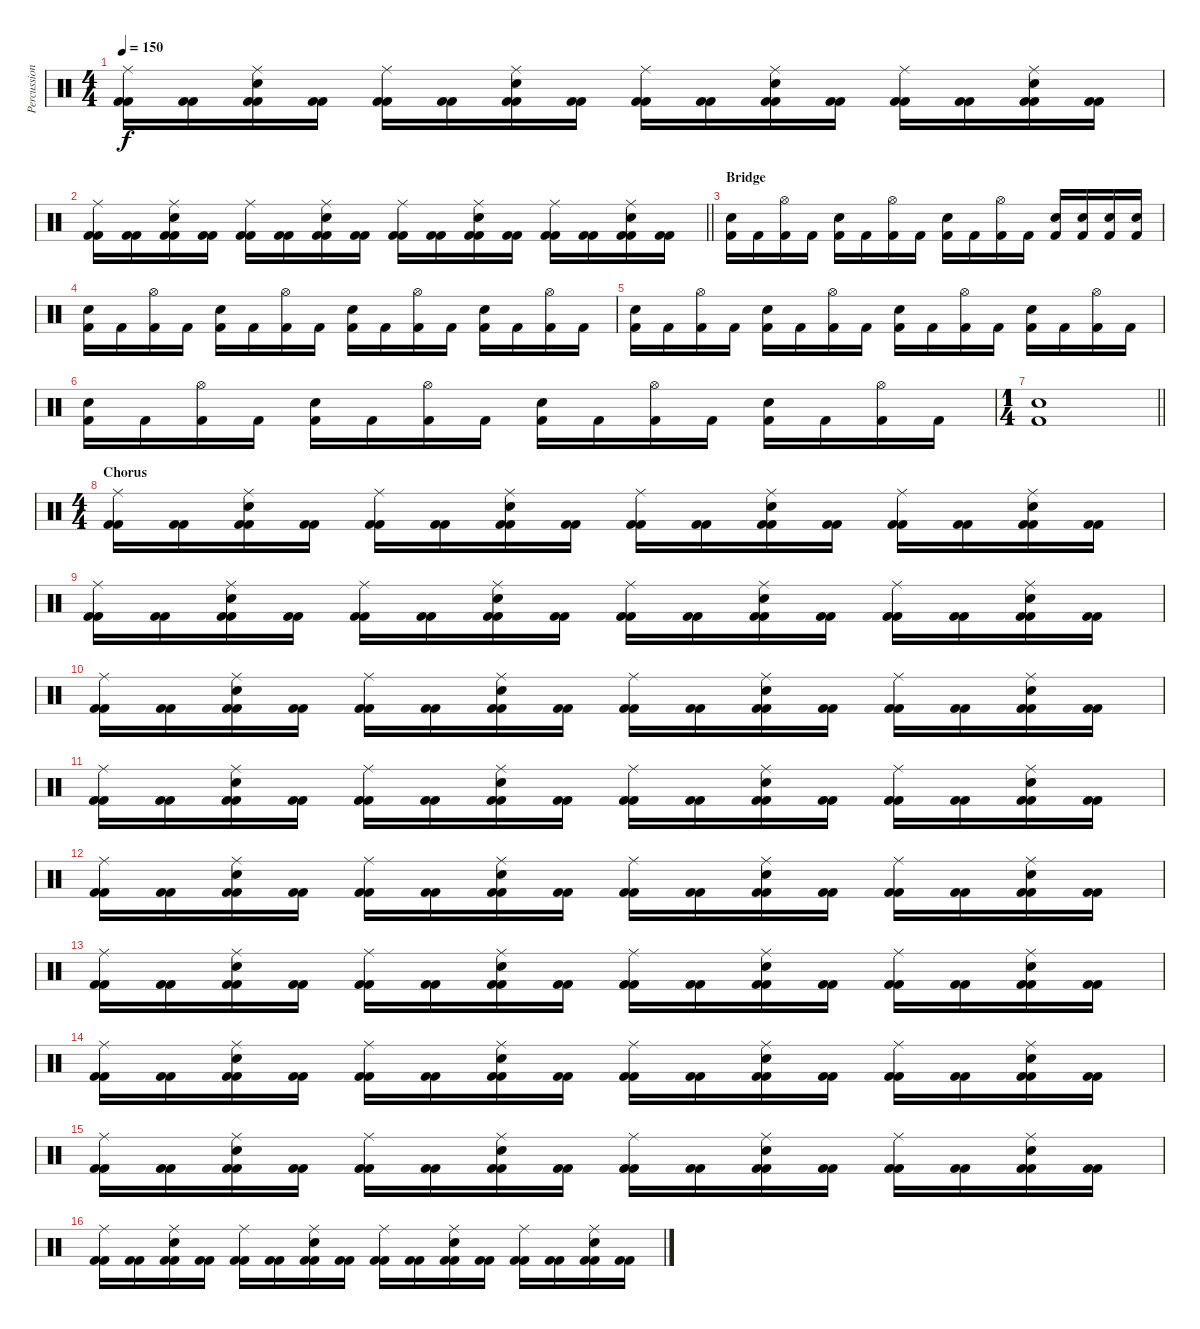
\track ("Percussion" "Percussion") {instrument percussion}
\staff {score}
\articulation defaults
\ts (4 4)
\tempo 150
\clef neutral
\ks c
("Kick (hit) 2" "Kick (hit) 2" "Ride (middle)").16{dy f} ("Kick (hit) 2" "Kick (hit) 2").16 ("Kick (hit) 2" "Kick (hit) 2" "Electric Snare (hit)" "Ride (middle)").16 ("Kick (hit) 2" "Kick (hit) 2").16 ("Kick (hit) 2" "Kick (hit) 2" "Ride (middle)").16 ("Kick (hit) 2" "Kick (hit) 2").16 ("Kick (hit) 2" "Kick (hit) 2" "Electric Snare (hit)" "Ride (middle)").16 ("Kick (hit) 2" "Kick (hit) 2").16 ("Kick (hit) 2" "Kick (hit) 2" "Ride (middle)").16 ("Kick (hit) 2" "Kick (hit) 2").16 ("Kick (hit) 2" "Kick (hit) 2" "Electric Snare (hit)" "Ride (middle)").16 ("Kick (hit) 2" "Kick (hit) 2").16 ("Kick (hit) 2" "Kick (hit) 2" "Ride (middle)").16 ("Kick (hit) 2" "Kick (hit) 2").16 ("Kick (hit) 2" "Kick (hit) 2" "Electric Snare (hit)" "Ride (middle)").16 ("Kick (hit) 2" "Kick (hit) 2").16 |
\barLineRight lightlight
("Kick (hit) 2" "Kick (hit) 2" "Ride (middle)").16 ("Kick (hit) 2" "Kick (hit) 2").16 ("Kick (hit) 2" "Kick (hit) 2" "Electric Snare (hit)" "Ride (middle)").16 ("Kick (hit) 2" "Kick (hit) 2").16 ("Kick (hit) 2" "Kick (hit) 2" "Ride (middle)").16 ("Kick (hit) 2" "Kick (hit) 2").16 ("Kick (hit) 2" "Kick (hit) 2" "Electric Snare (hit)" "Ride (middle)").16 ("Kick (hit) 2" "Kick (hit) 2").16 ("Kick (hit) 2" "Kick (hit) 2" "Ride (middle)").16 ("Kick (hit) 2" "Kick (hit) 2").16 ("Kick (hit) 2" "Kick (hit) 2" "Electric Snare (hit)" "Ride (middle)").16 ("Kick (hit) 2" "Kick (hit) 2").16 ("Kick (hit) 2" "Kick (hit) 2" "Ride (middle)").16 ("Kick (hit) 2" "Kick (hit) 2").16 ("Kick (hit) 2" "Kick (hit) 2" "Electric Snare (hit)" "Ride (middle)").16 ("Kick (hit) 2" "Kick (hit) 2").16 |
\section ("" "Bridge")
("Kick (hit) 2" "Snare (hit) 2").16 "Kick (hit) 2".16 ("Kick (hit) 2" "Hi-Hat (open)").16 "Kick (hit) 2".16 ("Kick (hit) 2" "Snare (hit) 2").16 "Kick (hit) 2".16 ("Kick (hit) 2" "Hi-Hat (open)").16 "Kick (hit) 2".16 ("Kick (hit) 2" "Snare (hit) 2").16 "Kick (hit) 2".16 ("Kick (hit) 2" "Hi-Hat (open)").16 "Kick (hit) 2".16 ("Kick (hit) 2" "Snare (hit) 2").16 ("Kick (hit) 2" "Snare (hit) 2").16 ("Kick (hit) 2" "Snare (hit) 2").16 ("Kick (hit) 2" "Snare (hit) 2").16 |
("Kick (hit) 2" "Snare (hit) 2").16 "Kick (hit) 2".16 ("Kick (hit) 2" "Hi-Hat (open)").16 "Kick (hit) 2".16 ("Kick (hit) 2" "Snare (hit) 2").16 "Kick (hit) 2".16 ("Kick (hit) 2" "Hi-Hat (open)").16 "Kick (hit) 2".16 ("Kick (hit) 2" "Snare (hit) 2").16 "Kick (hit) 2".16 ("Kick (hit) 2" "Hi-Hat (open)").16 "Kick (hit) 2".16 ("Kick (hit) 2" "Snare (hit) 2").16 "Kick (hit) 2".16 ("Kick (hit) 2" "Hi-Hat (open)").16 "Kick (hit) 2".16 |
("Kick (hit) 2" "Snare (hit) 2").16 "Kick (hit) 2".16 ("Kick (hit) 2" "Hi-Hat (open)").16 "Kick (hit) 2".16 ("Kick (hit) 2" "Snare (hit) 2").16 "Kick (hit) 2".16 ("Kick (hit) 2" "Hi-Hat (open)").16 "Kick (hit) 2".16 ("Kick (hit) 2" "Snare (hit) 2").16 "Kick (hit) 2".16 ("Kick (hit) 2" "Hi-Hat (open)").16 "Kick (hit) 2".16 ("Kick (hit) 2" "Snare (hit) 2").16 "Kick (hit) 2".16 ("Kick (hit) 2" "Hi-Hat (open)").16 "Kick (hit) 2".16 |
("Kick (hit) 2" "Snare (hit) 2").16 "Kick (hit) 2".16 ("Kick (hit) 2" "Hi-Hat (open)").16 "Kick (hit) 2".16 ("Kick (hit) 2" "Snare (hit) 2").16 "Kick (hit) 2".16 ("Kick (hit) 2" "Hi-Hat (open)").16 "Kick (hit) 2".16 ("Kick (hit) 2" "Snare (hit) 2").16 "Kick (hit) 2".16 ("Kick (hit) 2" "Hi-Hat (open)").16 "Kick (hit) 2".16 ("Kick (hit) 2" "Snare (hit) 2").16 "Kick (hit) 2".16 ("Kick (hit) 2" "Hi-Hat (open)").16 "Kick (hit) 2".16 |
\ts (1 4)
\barLineRight lightlight
("Kick (hit) 2" "Snare (hit) 2").1 |
\ts (4 4)
\section ("" "Chorus")
("Kick (hit) 2" "Kick (hit) 2" "Ride (middle)").16 ("Kick (hit) 2" "Kick (hit) 2").16 ("Kick (hit) 2" "Kick (hit) 2" "Electric Snare (hit)" "Ride (middle)").16 ("Kick (hit) 2" "Kick (hit) 2").16 ("Kick (hit) 2" "Kick (hit) 2" "Ride (middle)").16 ("Kick (hit) 2" "Kick (hit) 2").16 ("Kick (hit) 2" "Kick (hit) 2" "Electric Snare (hit)" "Ride (middle)").16 ("Kick (hit) 2" "Kick (hit) 2").16 ("Kick (hit) 2" "Kick (hit) 2" "Ride (middle)").16 ("Kick (hit) 2" "Kick (hit) 2").16 ("Kick (hit) 2" "Kick (hit) 2" "Electric Snare (hit)" "Ride (middle)").16 ("Kick (hit) 2" "Kick (hit) 2").16 ("Kick (hit) 2" "Kick (hit) 2" "Ride (middle)").16 ("Kick (hit) 2" "Kick (hit) 2").16 ("Kick (hit) 2" "Kick (hit) 2" "Electric Snare (hit)" "Ride (middle)").16 ("Kick (hit) 2" "Kick (hit) 2").16 |
("Kick (hit) 2" "Kick (hit) 2" "Ride (middle)").16 ("Kick (hit) 2" "Kick (hit) 2").16 ("Kick (hit) 2" "Kick (hit) 2" "Electric Snare (hit)" "Ride (middle)").16 ("Kick (hit) 2" "Kick (hit) 2").16 ("Kick (hit) 2" "Kick (hit) 2" "Ride (middle)").16 ("Kick (hit) 2" "Kick (hit) 2").16 ("Kick (hit) 2" "Kick (hit) 2" "Electric Snare (hit)" "Ride (middle)").16 ("Kick (hit) 2" "Kick (hit) 2").16 ("Kick (hit) 2" "Kick (hit) 2" "Ride (middle)").16 ("Kick (hit) 2" "Kick (hit) 2").16 ("Kick (hit) 2" "Kick (hit) 2" "Electric Snare (hit)" "Ride (middle)").16 ("Kick (hit) 2" "Kick (hit) 2").16 ("Kick (hit) 2" "Kick (hit) 2" "Ride (middle)").16 ("Kick (hit) 2" "Kick (hit) 2").16 ("Kick (hit) 2" "Kick (hit) 2" "Electric Snare (hit)" "Ride (middle)").16 ("Kick (hit) 2" "Kick (hit) 2").16 |
("Kick (hit) 2" "Kick (hit) 2" "Ride (middle)").16 ("Kick (hit) 2" "Kick (hit) 2").16 ("Kick (hit) 2" "Kick (hit) 2" "Electric Snare (hit)" "Ride (middle)").16 ("Kick (hit) 2" "Kick (hit) 2").16 ("Kick (hit) 2" "Kick (hit) 2" "Ride (middle)").16 ("Kick (hit) 2" "Kick (hit) 2").16 ("Kick (hit) 2" "Kick (hit) 2" "Electric Snare (hit)" "Ride (middle)").16 ("Kick (hit) 2" "Kick (hit) 2").16 ("Kick (hit) 2" "Kick (hit) 2" "Ride (middle)").16 ("Kick (hit) 2" "Kick (hit) 2").16 ("Kick (hit) 2" "Kick (hit) 2" "Electric Snare (hit)" "Ride (middle)").16 ("Kick (hit) 2" "Kick (hit) 2").16 ("Kick (hit) 2" "Kick (hit) 2" "Ride (middle)").16 ("Kick (hit) 2" "Kick (hit) 2").16 ("Kick (hit) 2" "Kick (hit) 2" "Electric Snare (hit)" "Ride (middle)").16 ("Kick (hit) 2" "Kick (hit) 2").16 |
("Kick (hit) 2" "Kick (hit) 2" "Ride (middle)").16 ("Kick (hit) 2" "Kick (hit) 2").16 ("Kick (hit) 2" "Kick (hit) 2" "Electric Snare (hit)" "Ride (middle)").16 ("Kick (hit) 2" "Kick (hit) 2").16 ("Kick (hit) 2" "Kick (hit) 2" "Ride (middle)").16 ("Kick (hit) 2" "Kick (hit) 2").16 ("Kick (hit) 2" "Kick (hit) 2" "Electric Snare (hit)" "Ride (middle)").16 ("Kick (hit) 2" "Kick (hit) 2").16 ("Kick (hit) 2" "Kick (hit) 2" "Ride (middle)").16 ("Kick (hit) 2" "Kick (hit) 2").16 ("Kick (hit) 2" "Kick (hit) 2" "Electric Snare (hit)" "Ride (middle)").16 ("Kick (hit) 2" "Kick (hit) 2").16 ("Kick (hit) 2" "Kick (hit) 2" "Ride (middle)").16 ("Kick (hit) 2" "Kick (hit) 2").16 ("Kick (hit) 2" "Kick (hit) 2" "Electric Snare (hit)" "Ride (middle)").16 ("Kick (hit) 2" "Kick (hit) 2").16 |
("Kick (hit) 2" "Kick (hit) 2" "Ride (middle)").16 ("Kick (hit) 2" "Kick (hit) 2").16 ("Kick (hit) 2" "Kick (hit) 2" "Electric Snare (hit)" "Ride (middle)").16 ("Kick (hit) 2" "Kick (hit) 2").16 ("Kick (hit) 2" "Kick (hit) 2" "Ride (middle)").16 ("Kick (hit) 2" "Kick (hit) 2").16 ("Kick (hit) 2" "Kick (hit) 2" "Electric Snare (hit)" "Ride (middle)").16 ("Kick (hit) 2" "Kick (hit) 2").16 ("Kick (hit) 2" "Kick (hit) 2" "Ride (middle)").16 ("Kick (hit) 2" "Kick (hit) 2").16 ("Kick (hit) 2" "Kick (hit) 2" "Electric Snare (hit)" "Ride (middle)").16 ("Kick (hit) 2" "Kick (hit) 2").16 ("Kick (hit) 2" "Kick (hit) 2" "Ride (middle)").16 ("Kick (hit) 2" "Kick (hit) 2").16 ("Kick (hit) 2" "Kick (hit) 2" "Electric Snare (hit)" "Ride (middle)").16 ("Kick (hit) 2" "Kick (hit) 2").16 |
("Kick (hit) 2" "Kick (hit) 2" "Ride (middle)").16 ("Kick (hit) 2" "Kick (hit) 2").16 ("Kick (hit) 2" "Kick (hit) 2" "Electric Snare (hit)" "Ride (middle)").16 ("Kick (hit) 2" "Kick (hit) 2").16 ("Kick (hit) 2" "Kick (hit) 2" "Ride (middle)").16 ("Kick (hit) 2" "Kick (hit) 2").16 ("Kick (hit) 2" "Kick (hit) 2" "Electric Snare (hit)" "Ride (middle)").16 ("Kick (hit) 2" "Kick (hit) 2").16 ("Kick (hit) 2" "Kick (hit) 2" "Ride (middle)").16 ("Kick (hit) 2" "Kick (hit) 2").16 ("Kick (hit) 2" "Kick (hit) 2" "Electric Snare (hit)" "Ride (middle)").16 ("Kick (hit) 2" "Kick (hit) 2").16 ("Kick (hit) 2" "Kick (hit) 2" "Ride (middle)").16 ("Kick (hit) 2" "Kick (hit) 2").16 ("Kick (hit) 2" "Kick (hit) 2" "Electric Snare (hit)" "Ride (middle)").16 ("Kick (hit) 2" "Kick (hit) 2").16 |
("Kick (hit) 2" "Kick (hit) 2" "Ride (middle)").16 ("Kick (hit) 2" "Kick (hit) 2").16 ("Kick (hit) 2" "Kick (hit) 2" "Electric Snare (hit)" "Ride (middle)").16 ("Kick (hit) 2" "Kick (hit) 2").16 ("Kick (hit) 2" "Kick (hit) 2" "Ride (middle)").16 ("Kick (hit) 2" "Kick (hit) 2").16 ("Kick (hit) 2" "Kick (hit) 2" "Electric Snare (hit)" "Ride (middle)").16 ("Kick (hit) 2" "Kick (hit) 2").16 ("Kick (hit) 2" "Kick (hit) 2" "Ride (middle)").16 ("Kick (hit) 2" "Kick (hit) 2").16 ("Kick (hit) 2" "Kick (hit) 2" "Electric Snare (hit)" "Ride (middle)").16 ("Kick (hit) 2" "Kick (hit) 2").16 ("Kick (hit) 2" "Kick (hit) 2" "Ride (middle)").16 ("Kick (hit) 2" "Kick (hit) 2").16 ("Kick (hit) 2" "Kick (hit) 2" "Electric Snare (hit)" "Ride (middle)").16 ("Kick (hit) 2" "Kick (hit) 2").16 |
("Kick (hit) 2" "Kick (hit) 2" "Ride (middle)").16 ("Kick (hit) 2" "Kick (hit) 2").16 ("Kick (hit) 2" "Kick (hit) 2" "Electric Snare (hit)" "Ride (middle)").16 ("Kick (hit) 2" "Kick (hit) 2").16 ("Kick (hit) 2" "Kick (hit) 2" "Ride (middle)").16 ("Kick (hit) 2" "Kick (hit) 2").16 ("Kick (hit) 2" "Kick (hit) 2" "Electric Snare (hit)" "Ride (middle)").16 ("Kick (hit) 2" "Kick (hit) 2").16 ("Kick (hit) 2" "Kick (hit) 2" "Ride (middle)").16 ("Kick (hit) 2" "Kick (hit) 2").16 ("Kick (hit) 2" "Kick (hit) 2" "Electric Snare (hit)" "Ride (middle)").16 ("Kick (hit) 2" "Kick (hit) 2").16 ("Kick (hit) 2" "Kick (hit) 2" "Ride (middle)").16 ("Kick (hit) 2" "Kick (hit) 2").16 ("Kick (hit) 2" "Kick (hit) 2" "Electric Snare (hit)" "Ride (middle)").16 ("Kick (hit) 2" "Kick (hit) 2").16 |
("Kick (hit) 2" "Kick (hit) 2" "Ride (middle)").16 ("Kick (hit) 2" "Kick (hit) 2").16 ("Kick (hit) 2" "Kick (hit) 2" "Electric Snare (hit)" "Ride (middle)").16 ("Kick (hit) 2" "Kick (hit) 2").16 ("Kick (hit) 2" "Kick (hit) 2" "Ride (middle)").16 ("Kick (hit) 2" "Kick (hit) 2").16 ("Kick (hit) 2" "Kick (hit) 2" "Electric Snare (hit)" "Ride (middle)").16 ("Kick (hit) 2" "Kick (hit) 2").16 ("Kick (hit) 2" "Kick (hit) 2" "Ride (middle)").16 ("Kick (hit) 2" "Kick (hit) 2").16 ("Kick (hit) 2" "Kick (hit) 2" "Electric Snare (hit)" "Ride (middle)").16 ("Kick (hit) 2" "Kick (hit) 2").16 ("Kick (hit) 2" "Kick (hit) 2" "Ride (middle)").16 ("Kick (hit) 2" "Kick (hit) 2").16 ("Kick (hit) 2" "Kick (hit) 2" "Electric Snare (hit)" "Ride (middle)").16 ("Kick (hit) 2" "Kick (hit) 2").16
